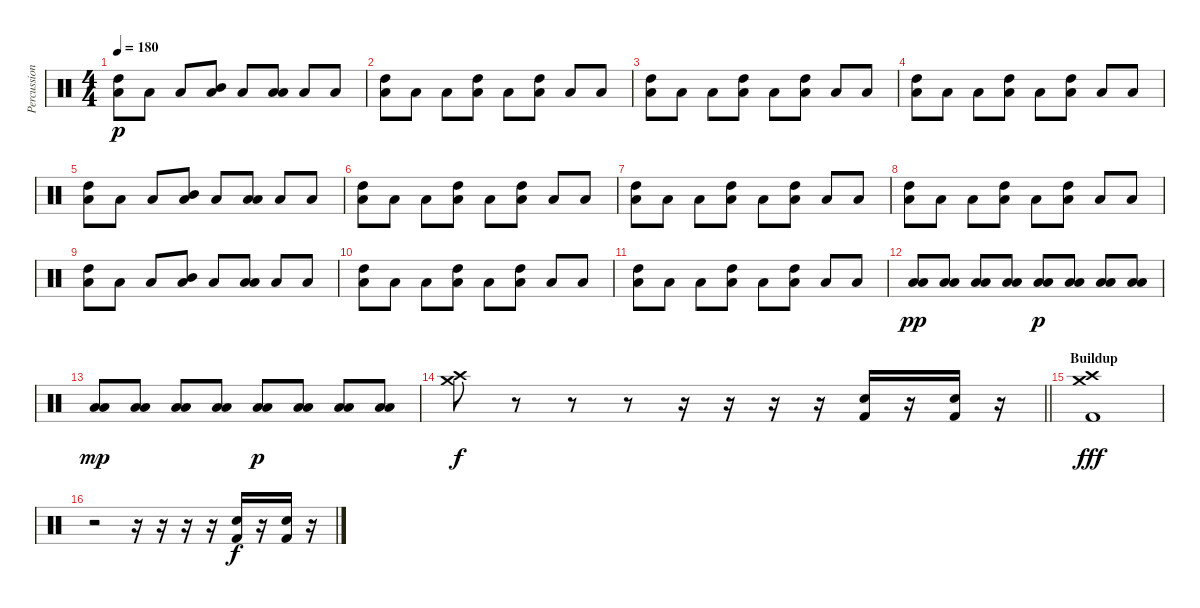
\track ("Percussion" "Percussion") {instrument percussion}
\staff {score}
\articulation defaults
\ts (4 4)
\tempo 180
\clef neutral
\ks c
("High Tom (hit)" "Low Floor Tom (hit)").8{dy p} "Low Floor Tom (hit)".8 "Low Floor Tom (hit)".8 ("Mid Tom (hit)" "Low Floor Tom (hit)").8 "Low Floor Tom (hit)".8 ("Low Tom (hit)" "Low Floor Tom (hit)").8 "Low Floor Tom (hit)".8 "Low Floor Tom (hit)".8 |
("High Tom (hit)" "Low Floor Tom (hit)").8 "Low Floor Tom (hit)".8 "Low Floor Tom (hit)".8 ("High Tom (hit)" "Low Floor Tom (hit)").8 "Low Floor Tom (hit)".8 ("High Tom (hit)" "Low Floor Tom (hit)").8 "Low Floor Tom (hit)".8 "Low Floor Tom (hit)".8 |
("High Tom (hit)" "Low Floor Tom (hit)").8 "Low Floor Tom (hit)".8 "Low Floor Tom (hit)".8 ("High Tom (hit)" "Low Floor Tom (hit)").8 "Low Floor Tom (hit)".8 ("High Tom (hit)" "Low Floor Tom (hit)").8 "Low Floor Tom (hit)".8 "Low Floor Tom (hit)".8 |
("High Tom (hit)" "Low Floor Tom (hit)").8 "Low Floor Tom (hit)".8 "Low Floor Tom (hit)".8 ("High Tom (hit)" "Low Floor Tom (hit)").8 "Low Floor Tom (hit)".8 ("High Tom (hit)" "Low Floor Tom (hit)").8 "Low Floor Tom (hit)".8 "Low Floor Tom (hit)".8 |
("High Tom (hit)" "Low Floor Tom (hit)").8 "Low Floor Tom (hit)".8 "Low Floor Tom (hit)".8 ("Mid Tom (hit)" "Low Floor Tom (hit)").8 "Low Floor Tom (hit)".8 ("Low Tom (hit)" "Low Floor Tom (hit)").8 "Low Floor Tom (hit)".8 "Low Floor Tom (hit)".8 |
("High Tom (hit)" "Low Floor Tom (hit)").8 "Low Floor Tom (hit)".8 "Low Floor Tom (hit)".8 ("High Tom (hit)" "Low Floor Tom (hit)").8 "Low Floor Tom (hit)".8 ("High Tom (hit)" "Low Floor Tom (hit)").8 "Low Floor Tom (hit)".8 "Low Floor Tom (hit)".8 |
("High Tom (hit)" "Low Floor Tom (hit)").8 "Low Floor Tom (hit)".8 "Low Floor Tom (hit)".8 ("High Tom (hit)" "Low Floor Tom (hit)").8 "Low Floor Tom (hit)".8 ("High Tom (hit)" "Low Floor Tom (hit)").8 "Low Floor Tom (hit)".8 "Low Floor Tom (hit)".8 |
("High Tom (hit)" "Low Floor Tom (hit)").8 "Low Floor Tom (hit)".8 "Low Floor Tom (hit)".8 ("High Tom (hit)" "Low Floor Tom (hit)").8 "Low Floor Tom (hit)".8 ("High Tom (hit)" "Low Floor Tom (hit)").8 "Low Floor Tom (hit)".8 "Low Floor Tom (hit)".8 |
("High Tom (hit)" "Low Floor Tom (hit)").8 "Low Floor Tom (hit)".8 "Low Floor Tom (hit)".8 ("Mid Tom (hit)" "Low Floor Tom (hit)").8 "Low Floor Tom (hit)".8 ("Low Tom (hit)" "Low Floor Tom (hit)").8 "Low Floor Tom (hit)".8 "Low Floor Tom (hit)".8 |
("High Tom (hit)" "Low Floor Tom (hit)").8 "Low Floor Tom (hit)".8 "Low Floor Tom (hit)".8 ("High Tom (hit)" "Low Floor Tom (hit)").8 "Low Floor Tom (hit)".8 ("High Tom (hit)" "Low Floor Tom (hit)").8 "Low Floor Tom (hit)".8 "Low Floor Tom (hit)".8 |
("High Tom (hit)" "Low Floor Tom (hit)").8 "Low Floor Tom (hit)".8 "Low Floor Tom (hit)".8 ("High Tom (hit)" "Low Floor Tom (hit)").8 "Low Floor Tom (hit)".8 ("High Tom (hit)" "Low Floor Tom (hit)").8 "Low Floor Tom (hit)".8 "Low Floor Tom (hit)".8 |
("Low Tom (hit)" "Low Floor Tom (hit)").8{dy pp} ("Low Tom (hit)" "Low Floor Tom (hit)").8 ("Low Tom (hit)" "Low Floor Tom (hit)").8 ("Low Tom (hit)" "Low Floor Tom (hit)").8 ("Low Tom (hit)" "Low Floor Tom (hit)").8{dy p} ("Low Tom (hit)" "Low Floor Tom (hit)").8 ("Low Tom (hit)" "Low Floor Tom (hit)").8 ("Low Tom (hit)" "Low Floor Tom (hit)").8 |
("Low Tom (hit)" "Low Floor Tom (hit)").8{dy mp} ("Low Tom (hit)" "Low Floor Tom (hit)").8 ("Low Tom (hit)" "Low Floor Tom (hit)").8 ("Low Tom (hit)" "Low Floor Tom (hit)").8 ("Low Tom (hit)" "Low Floor Tom (hit)").8{dy p} ("Low Tom (hit)" "Low Floor Tom (hit)").8 ("Low Tom (hit)" "Low Floor Tom (hit)").8 ("Low Tom (hit)" "Low Floor Tom (hit)").8 |
\barLineRight lightlight
("Crash high (hit)" "Crash medium (hit)").8{dy f} r.8 r.8 r.8 r.16 r.16 r.16 r.16 ("Snare (hit) 2" "Kick (hit) 2").16 r.16 ("Snare (hit) 2" "Kick (hit) 2").16 r.16 |
\section ("" "Buildup")
("Crash high (hit)" "Crash medium (hit)" "Kick (hit) 2").1{dy fff} |
r.2 r.16 r.16 r.16 r.16 ("Snare (hit) 2" "Kick (hit) 2").16{dy f} r.16 ("Snare (hit) 2" "Kick (hit) 2").16 r.16
